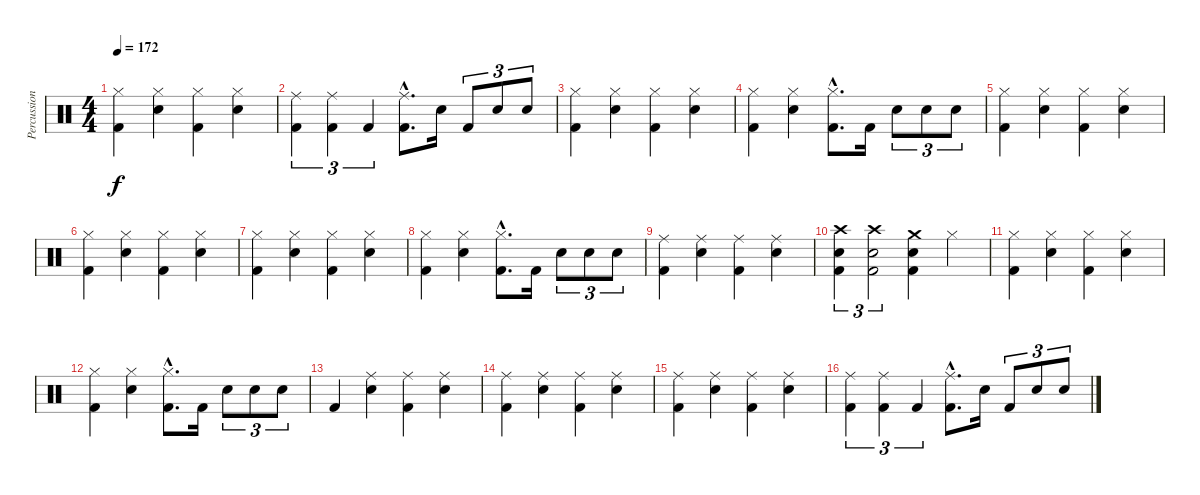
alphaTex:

\track ("Percussion" "Percussion") {instrument percussion}
\staff {score}
\articulation defaults
\ts (4 4)
\tempo 172
\clef neutral
\ks c
("Hi-Hat (closed)" "Kick (hit) 2").4{dy f} ("Hi-Hat (closed)" "Snare (hit) 2").4 ("Hi-Hat (closed)" "Kick (hit) 2").4 ("Hi-Hat (closed)" "Snare (hit) 2").4 |
("Ride (middle)" "Kick (hit) 2").4{tu (3 2)} ("Ride (middle)" "Kick (hit) 2").4{tu (3 2)} "Kick (hit) 2".4{tu (3 2)} ("Ride (middle)"{hac} "Kick (hit) 2"{hac}).8{d} "Snare (hit) 2".16 "Kick (hit) 2".8{tu (3 2)} "Snare (hit) 2".8{tu (3 2)} "Snare (hit) 2".8{tu (3 2)} |
("Hi-Hat (closed)" "Kick (hit) 2").4 ("Hi-Hat (closed)" "Snare (hit) 2").4 ("Hi-Hat (closed)" "Kick (hit) 2").4 ("Hi-Hat (closed)" "Snare (hit) 2").4 |
("Hi-Hat (closed)" "Kick (hit) 2").4 ("Hi-Hat (closed)" "Snare (hit) 2").4 ("Hi-Hat (closed)"{hac} "Kick (hit) 2"{hac}).8{d} "Kick (hit) 2".16 "Snare (hit) 2".8{tu (3 2)} "Snare (hit) 2".8{tu (3 2)} "Snare (hit) 2".8{tu (3 2)} |
("Hi-Hat (closed)" "Kick (hit) 2").4 ("Hi-Hat (closed)" "Snare (hit) 2").4 ("Hi-Hat (closed)" "Kick (hit) 2").4 ("Hi-Hat (closed)" "Snare (hit) 2").4 |
("Hi-Hat (closed)" "Kick (hit) 2").4 ("Hi-Hat (closed)" "Snare (hit) 2").4 ("Hi-Hat (closed)" "Kick (hit) 2").4 ("Hi-Hat (closed)" "Snare (hit) 2").4 |
("Hi-Hat (closed)" "Kick (hit) 2").4 ("Hi-Hat (closed)" "Snare (hit) 2").4 ("Hi-Hat (closed)" "Kick (hit) 2").4 ("Hi-Hat (closed)" "Snare (hit) 2").4 |
("Hi-Hat (closed)" "Kick (hit) 2").4 ("Hi-Hat (closed)" "Snare (hit) 2").4 ("Hi-Hat (closed)"{hac} "Kick (hit) 2"{hac}).8{d} "Kick (hit) 2".16 "Snare (hit) 2".8{tu (3 2)} "Snare (hit) 2".8{tu (3 2)} "Snare (hit) 2".8{tu (3 2)} |
("Ride (middle)" "Kick (hit) 2").4 ("Ride (middle)" "Snare (hit) 2").4 ("Ride (middle)" "Kick (hit) 2").4 ("Ride (middle)" "Snare (hit) 2").4 |
("Crash high (hit)" "Snare (hit) 2" "Kick (hit) 2").4{tu (3 2)} ("Crash high (hit)" "Snare (hit) 2" "Kick (hit) 2").2{tu (3 2)} ("Crash medium (hit)" "Snare (hit) 2" "Kick (hit) 2").4 "Hi-Hat (closed)".4 |
("Hi-Hat (closed)" "Kick (hit) 2").4 ("Hi-Hat (closed)" "Snare (hit) 2").4 ("Hi-Hat (closed)" "Kick (hit) 2").4 ("Hi-Hat (closed)" "Snare (hit) 2").4 |
("Hi-Hat (closed)" "Kick (hit) 2").4 ("Hi-Hat (closed)" "Snare (hit) 2").4 ("Hi-Hat (closed)"{hac} "Kick (hit) 2"{hac}).8{d} "Kick (hit) 2".16 "Snare (hit) 2".8{tu (3 2)} "Snare (hit) 2".8{tu (3 2)} "Snare (hit) 2".8{tu (3 2)} |
"Kick (hit) 2".4 ("Ride (middle)" "Snare (hit) 2").4 ("Ride (middle)" "Kick (hit) 2").4 ("Ride (middle)" "Snare (hit) 2").4 |
("Ride (middle)" "Kick (hit) 2").4 ("Ride (middle)" "Snare (hit) 2").4 ("Ride (middle)" "Kick (hit) 2").4 ("Ride (middle)" "Snare (hit) 2").4 |
("Ride (middle)" "Kick (hit) 2").4 ("Ride (middle)" "Snare (hit) 2").4 ("Ride (middle)" "Kick (hit) 2").4 ("Ride (middle)" "Snare (hit) 2").4 |
("Ride (middle)" "Kick (hit) 2").4{tu (3 2)} ("Ride (middle)" "Kick (hit) 2").4{tu (3 2)} "Kick (hit) 2".4{tu (3 2)} ("Ride (middle)"{hac} "Kick (hit) 2"{hac}).8{d} "Snare (hit) 2".16 "Kick (hit) 2".8{tu (3 2)} "Snare (hit) 2".8{tu (3 2)} "Snare (hit) 2".8{tu (3 2)}
